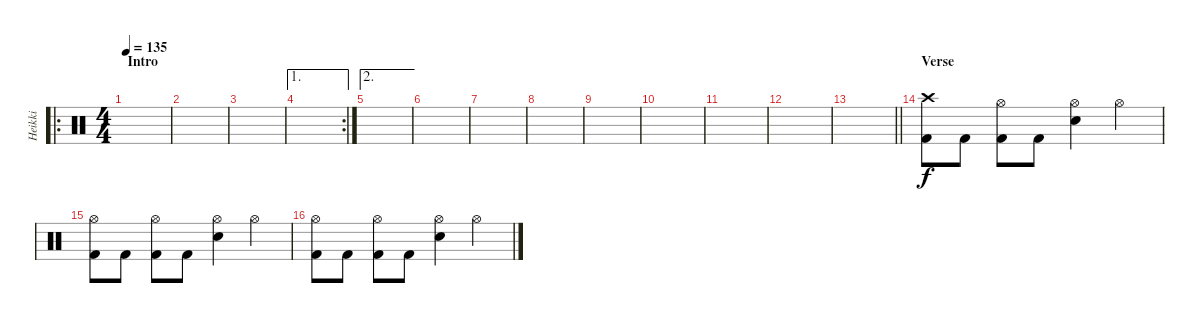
\track ("Heikki" "Heikki") {instrument percussion}
\staff {score}
\articulation defaults
\ro
\ts (4 4)
\section ("" "Intro")
\tempo 135
\clef neutral
\ks c
|
|
|
\ae 1
\rc 2
|
\ae 2
|
|
|
|
|
|
|
|
\barLineRight lightlight
|
\section ("" "Verse")
("Crash high (hit)" "Kick (hit) 2").8 "Kick (hit) 2".8 ("Hi-Hat (open)" "Kick (hit) 2").8 "Kick (hit) 2".8 ("Hi-Hat (open)" "Electric Snare (hit)").4 "Hi-Hat (open)".4 |
("Hi-Hat (open)" "Kick (hit) 2").8 "Kick (hit) 2".8 ("Hi-Hat (open)" "Kick (hit) 2").8 "Kick (hit) 2".8 ("Hi-Hat (open)" "Electric Snare (hit)").4 "Hi-Hat (open)".4 |
("Hi-Hat (open)" "Kick (hit) 2").8 "Kick (hit) 2".8 ("Hi-Hat (open)" "Kick (hit) 2").8 "Kick (hit) 2".8 ("Hi-Hat (open)" "Electric Snare (hit)").4 "Hi-Hat (open)".4
